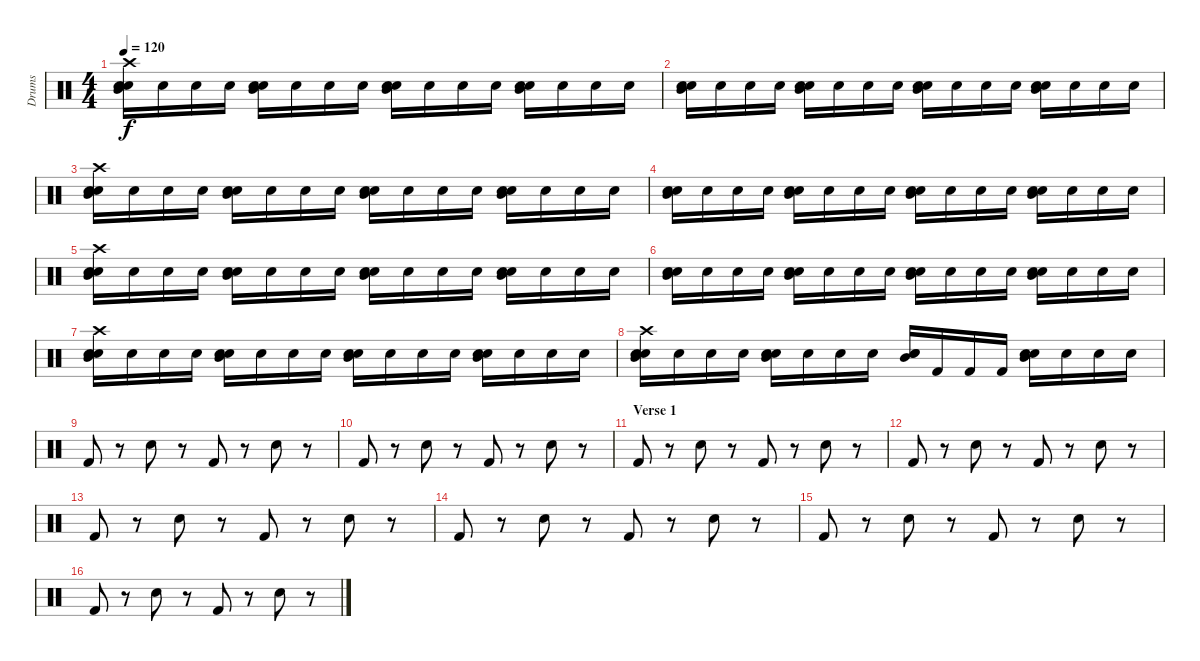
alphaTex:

\track ("Drums" "Drums") {instrument percussion}
\staff {score}
\articulation defaults
\ts (4 4)
\tempo 120
\clef neutral
\ks c
("Electric Snare (hit)" "Snare (hit) 2" "Mid Tom (hit)" "Crash high (hit)").16{dy f} "Snare (hit) 2".16 "Snare (hit) 2".16 "Snare (hit) 2".16 ("Mid Tom (hit)" "Snare (hit) 2" "Electric Snare (hit)").16 "Snare (hit) 2".16 "Snare (hit) 2".16 "Snare (hit) 2".16 ("Mid Tom (hit)" "Snare (hit) 2" "Electric Snare (hit)").16 "Snare (hit) 2".16 "Snare (hit) 2".16 "Snare (hit) 2".16 ("Mid Tom (hit)" "Snare (hit) 2" "Electric Snare (hit)").16 "Snare (hit) 2".16 "Snare (hit) 2".16 "Snare (hit) 2".16 |
("Electric Snare (hit)" "Snare (hit) 2" "Mid Tom (hit)").16 "Snare (hit) 2".16 "Snare (hit) 2".16 "Snare (hit) 2".16 ("Mid Tom (hit)" "Snare (hit) 2" "Electric Snare (hit)").16 "Snare (hit) 2".16 "Snare (hit) 2".16 "Snare (hit) 2".16 ("Mid Tom (hit)" "Snare (hit) 2" "Electric Snare (hit)").16 "Snare (hit) 2".16 "Snare (hit) 2".16 "Snare (hit) 2".16 ("Mid Tom (hit)" "Snare (hit) 2" "Electric Snare (hit)").16 "Snare (hit) 2".16 "Snare (hit) 2".16 "Snare (hit) 2".16 |
("Electric Snare (hit)" "Snare (hit) 2" "Mid Tom (hit)" "Crash high (hit)").16 "Snare (hit) 2".16 "Snare (hit) 2".16 "Snare (hit) 2".16 ("Mid Tom (hit)" "Snare (hit) 2" "Electric Snare (hit)").16 "Snare (hit) 2".16 "Snare (hit) 2".16 "Snare (hit) 2".16 ("Mid Tom (hit)" "Snare (hit) 2" "Electric Snare (hit)").16 "Snare (hit) 2".16 "Snare (hit) 2".16 "Snare (hit) 2".16 ("Mid Tom (hit)" "Snare (hit) 2" "Electric Snare (hit)").16 "Snare (hit) 2".16 "Snare (hit) 2".16 "Snare (hit) 2".16 |
("Electric Snare (hit)" "Snare (hit) 2" "Mid Tom (hit)").16 "Snare (hit) 2".16 "Snare (hit) 2".16 "Snare (hit) 2".16 ("Mid Tom (hit)" "Snare (hit) 2" "Electric Snare (hit)").16 "Snare (hit) 2".16 "Snare (hit) 2".16 "Snare (hit) 2".16 ("Mid Tom (hit)" "Snare (hit) 2" "Electric Snare (hit)").16 "Snare (hit) 2".16 "Snare (hit) 2".16 "Snare (hit) 2".16 ("Mid Tom (hit)" "Snare (hit) 2" "Electric Snare (hit)").16 "Snare (hit) 2".16 "Snare (hit) 2".16 "Snare (hit) 2".16 |
("Electric Snare (hit)" "Snare (hit) 2" "Mid Tom (hit)" "Crash high (hit)").16 "Snare (hit) 2".16 "Snare (hit) 2".16 "Snare (hit) 2".16 ("Mid Tom (hit)" "Snare (hit) 2" "Electric Snare (hit)").16 "Snare (hit) 2".16 "Snare (hit) 2".16 "Snare (hit) 2".16 ("Mid Tom (hit)" "Snare (hit) 2" "Electric Snare (hit)").16 "Snare (hit) 2".16 "Snare (hit) 2".16 "Snare (hit) 2".16 ("Mid Tom (hit)" "Snare (hit) 2" "Electric Snare (hit)").16 "Snare (hit) 2".16 "Snare (hit) 2".16 "Snare (hit) 2".16 |
("Electric Snare (hit)" "Snare (hit) 2" "Mid Tom (hit)").16 "Snare (hit) 2".16 "Snare (hit) 2".16 "Snare (hit) 2".16 ("Mid Tom (hit)" "Snare (hit) 2" "Electric Snare (hit)").16 "Snare (hit) 2".16 "Snare (hit) 2".16 "Snare (hit) 2".16 ("Mid Tom (hit)" "Snare (hit) 2" "Electric Snare (hit)").16 "Snare (hit) 2".16 "Snare (hit) 2".16 "Snare (hit) 2".16 ("Mid Tom (hit)" "Snare (hit) 2" "Electric Snare (hit)").16 "Snare (hit) 2".16 "Snare (hit) 2".16 "Snare (hit) 2".16 |
("Electric Snare (hit)" "Snare (hit) 2" "Mid Tom (hit)" "Crash high (hit)").16 "Snare (hit) 2".16 "Snare (hit) 2".16 "Snare (hit) 2".16 ("Mid Tom (hit)" "Snare (hit) 2" "Electric Snare (hit)").16 "Snare (hit) 2".16 "Snare (hit) 2".16 "Snare (hit) 2".16 ("Mid Tom (hit)" "Snare (hit) 2" "Electric Snare (hit)").16 "Snare (hit) 2".16 "Snare (hit) 2".16 "Snare (hit) 2".16 ("Mid Tom (hit)" "Snare (hit) 2" "Electric Snare (hit)").16 "Snare (hit) 2".16 "Snare (hit) 2".16 "Snare (hit) 2".16 |
("Electric Snare (hit)" "Snare (hit) 2" "Mid Tom (hit)" "Crash high (hit)").16 "Snare (hit) 2".16 "Snare (hit) 2".16 "Snare (hit) 2".16 ("Mid Tom (hit)" "Snare (hit) 2" "Electric Snare (hit)").16 "Snare (hit) 2".16 "Snare (hit) 2".16 "Snare (hit) 2".16 ("Mid Tom (hit)" "Snare (hit) 2" "Electric Snare (hit)").16 "Kick (hit) 2".16 "Kick (hit) 2".16 "Kick (hit) 2".16 ("Mid Tom (hit)" "Snare (hit) 2" "Electric Snare (hit)").16 "Electric Snare (hit)".16 "Electric Snare (hit)".16 "Electric Snare (hit)".16 |
"Kick (hit) 2".8 r.8 "Snare (hit) 2".8 r.8 "Kick (hit) 2".8 r.8 "Snare (hit) 2".8 r.8 |
"Kick (hit) 2".8 r.8 "Snare (hit) 2".8 r.8 "Kick (hit) 2".8 r.8 "Snare (hit) 2".8 r.8 |
\section ("" "Verse 1")
"Kick (hit) 2".8 r.8 "Snare (hit) 2".8 r.8 "Kick (hit) 2".8 r.8 "Snare (hit) 2".8 r.8 |
"Kick (hit) 2".8 r.8 "Snare (hit) 2".8 r.8 "Kick (hit) 2".8 r.8 "Snare (hit) 2".8 r.8 |
"Kick (hit) 2".8 r.8 "Snare (hit) 2".8 r.8 "Kick (hit) 2".8 r.8 "Snare (hit) 2".8 r.8 |
"Kick (hit) 2".8 r.8 "Snare (hit) 2".8 r.8 "Kick (hit) 2".8 r.8 "Snare (hit) 2".8 r.8 |
"Kick (hit) 2".8 r.8 "Snare (hit) 2".8 r.8 "Kick (hit) 2".8 r.8 "Snare (hit) 2".8 r.8 |
"Kick (hit) 2".8 r.8 "Snare (hit) 2".8 r.8 "Kick (hit) 2".8 r.8 "Snare (hit) 2".8 r.8
